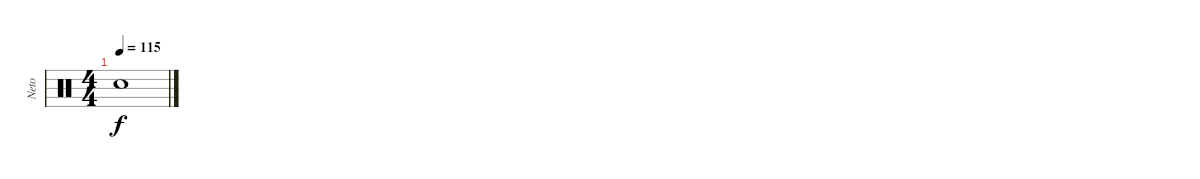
\track ("Neto" "Neto") {instrument percussion}
\staff {score}
\articulation defaults
\ts (4 4)
\tempo 115
\clef neutral
\ks c "Snare (hit)"{t}.1{dy f}
